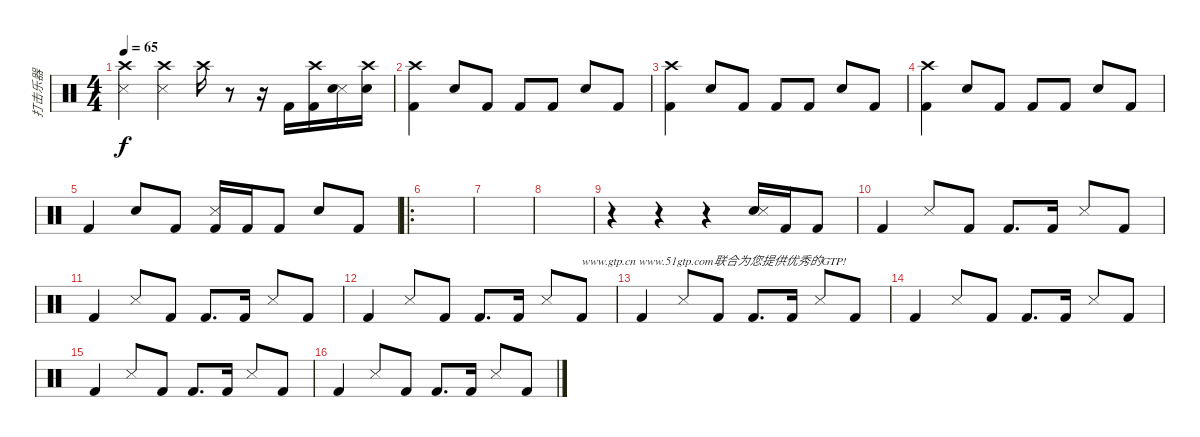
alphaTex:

\track ("打击乐器" "打击乐器") {instrument percussion}
\staff {score}
\articulation defaults
\ts (4 4)
\tempo 65
\clef neutral
\ks c
("Snare (side stick) 3" "Crash high (hit)").4{txt " " dy f} ("Snare (side stick) 3" "Crash high (hit)").4 "Crash high (hit)".16 r.8 r.16 "Kick (hit) 2".16 ("Crash high (hit)" "Kick (hit) 2").16 ("Snare (side stick) 3" "Snare (hit) 2").16 ("Crash high (hit)" "Snare (hit) 2").16 |
("Crash high (hit)" "Kick (hit) 2").4 "Snare (hit) 2".8 "Kick (hit) 2".8 "Kick (hit) 2".8 "Kick (hit) 2".8 "Snare (hit) 2".8 "Kick (hit) 2".8 |
("Crash high (hit)" "Kick (hit) 2").4 "Snare (hit) 2".8 "Kick (hit) 2".8 "Kick (hit) 2".8 "Kick (hit) 2".8 "Snare (hit) 2".8 "Kick (hit) 2".8 |
("Crash high (hit)" "Kick (hit) 2").4 "Snare (hit) 2".8 "Kick (hit) 2".8 "Kick (hit) 2".8 "Kick (hit) 2".8 "Snare (hit) 2".8 "Kick (hit) 2".8 |
"Kick (hit) 2".4 "Snare (hit) 2".8 "Kick (hit) 2".8 ("Snare (side stick) 3" "Kick (hit) 2").16 "Kick (hit) 2".16 "Kick (hit) 2".8 "Snare (hit) 2".8 "Kick (hit) 2".8 |
\ro
|
|
|
r.4 r.4 r.4 ("Snare (hit) 2" "Snare (side stick) 3").16 "Kick (hit) 2".16 "Kick (hit) 2".8 |
"Kick (hit) 2".4 "Snare (side stick) 3".8 "Kick (hit) 2".8 "Kick (hit) 2".8{d} "Kick (hit) 2".16 "Snare (side stick) 3".8 "Kick (hit) 2".8 |
"Kick (hit) 2".4 "Snare (side stick) 3".8 "Kick (hit) 2".8 "Kick (hit) 2".8{d} "Kick (hit) 2".16 "Snare (side stick) 3".8 "Kick (hit) 2".8 |
"Kick (hit) 2".4 "Snare (side stick) 3".8 "Kick (hit) 2".8 "Kick (hit) 2".8{d} "Kick (hit) 2".16 "Snare (side stick) 3".8 "Kick (hit) 2".8{txt "www.gtp.cn www.51gtp.com联合为您提供优秀的GTP!"} |
"Kick (hit) 2".4 "Snare (side stick) 3".8 "Kick (hit) 2".8 "Kick (hit) 2".8{d} "Kick (hit) 2".16 "Snare (side stick) 3".8 "Kick (hit) 2".8 |
"Kick (hit) 2".4 "Snare (side stick) 3".8 "Kick (hit) 2".8 "Kick (hit) 2".8{d} "Kick (hit) 2".16 "Snare (side stick) 3".8 "Kick (hit) 2".8 |
"Kick (hit) 2".4 "Snare (side stick) 3".8 "Kick (hit) 2".8 "Kick (hit) 2".8{d} "Kick (hit) 2".16 "Snare (side stick) 3".8 "Kick (hit) 2".8 |
"Kick (hit) 2".4 "Snare (side stick) 3".8 "Kick (hit) 2".8 "Kick (hit) 2".8{d} "Kick (hit) 2".16 "Snare (side stick) 3".8 "Kick (hit) 2".8
